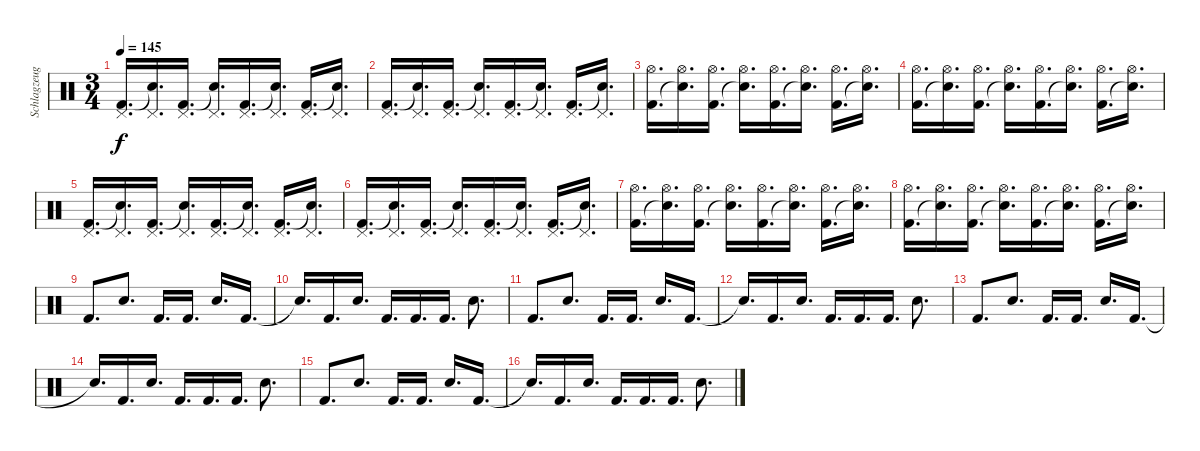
\track ("Schlagzeug" "Schlagzeug") {instrument percussion}
\staff {score}
\articulation defaults
\ts (3 4)
\tempo 145
\clef neutral
\ks c
("Kick (hit) 2" "Pedal Hi-Hat (hit)").16{d dy f} ("Snare (hit)"{t} "Pedal Hi-Hat (hit)").16{d} ("Kick (hit) 2" "Pedal Hi-Hat (hit)").16{d} ("Snare (hit)"{t} "Pedal Hi-Hat (hit)").16{d} ("Kick (hit) 2" "Pedal Hi-Hat (hit)").16{d} ("Snare (hit)"{t} "Pedal Hi-Hat (hit)").16{d} ("Kick (hit) 2" "Pedal Hi-Hat (hit)").16{d} ("Snare (hit)"{t} "Pedal Hi-Hat (hit)").16{d} |
("Kick (hit) 2" "Pedal Hi-Hat (hit)").16{d} ("Snare (hit)"{t} "Pedal Hi-Hat (hit)").16{d} ("Kick (hit) 2" "Pedal Hi-Hat (hit)").16{d} ("Snare (hit)"{t} "Pedal Hi-Hat (hit)").16{d} ("Kick (hit) 2" "Pedal Hi-Hat (hit)").16{d} ("Snare (hit)"{t} "Pedal Hi-Hat (hit)").16{d} ("Kick (hit) 2" "Pedal Hi-Hat (hit)").16{d} ("Snare (hit)"{t} "Pedal Hi-Hat (hit)").16{d} |
("Kick (hit) 2" "Hi-Hat (open)").16{d} ("Snare (hit)"{t} "Hi-Hat (open)").16{d} ("Kick (hit) 2" "Hi-Hat (open)").16{d} ("Snare (hit)"{t} "Hi-Hat (open)").16{d} ("Kick (hit) 2" "Hi-Hat (open)").16{d} ("Snare (hit)"{t} "Hi-Hat (open)").16{d} ("Kick (hit) 2" "Hi-Hat (open)").16{d} ("Snare (hit)"{t} "Hi-Hat (open)").16{d} |
("Kick (hit) 2" "Hi-Hat (open)").16{d} ("Snare (hit)"{t} "Hi-Hat (open)").16{d} ("Kick (hit) 2" "Hi-Hat (open)").16{d} ("Snare (hit)"{t} "Hi-Hat (open)").16{d} ("Kick (hit) 2" "Hi-Hat (open)").16{d} ("Snare (hit)"{t} "Hi-Hat (open)").16{d} ("Kick (hit) 2" "Hi-Hat (open)").16{d} ("Snare (hit)"{t} "Hi-Hat (open)").16{d} |
("Kick (hit) 2" "Pedal Hi-Hat (hit)").16{d} ("Snare (hit)"{t} "Pedal Hi-Hat (hit)").16{d} ("Kick (hit) 2" "Pedal Hi-Hat (hit)").16{d} ("Snare (hit)"{t} "Pedal Hi-Hat (hit)").16{d} ("Kick (hit) 2" "Pedal Hi-Hat (hit)").16{d} ("Snare (hit)"{t} "Pedal Hi-Hat (hit)").16{d} ("Kick (hit) 2" "Pedal Hi-Hat (hit)").16{d} ("Snare (hit)"{t} "Pedal Hi-Hat (hit)").16{d} |
("Kick (hit) 2" "Pedal Hi-Hat (hit)").16{d} ("Snare (hit)"{t} "Pedal Hi-Hat (hit)").16{d} ("Kick (hit) 2" "Pedal Hi-Hat (hit)").16{d} ("Snare (hit)"{t} "Pedal Hi-Hat (hit)").16{d} ("Kick (hit) 2" "Pedal Hi-Hat (hit)").16{d} ("Snare (hit)"{t} "Pedal Hi-Hat (hit)").16{d} ("Kick (hit) 2" "Pedal Hi-Hat (hit)").16{d} ("Snare (hit)"{t} "Pedal Hi-Hat (hit)").16{d} |
("Kick (hit) 2" "Hi-Hat (open)").16{d} ("Snare (hit)"{t} "Hi-Hat (open)").16{d} ("Kick (hit) 2" "Hi-Hat (open)").16{d} ("Snare (hit)"{t} "Hi-Hat (open)").16{d} ("Kick (hit) 2" "Hi-Hat (open)").16{d} ("Snare (hit)"{t} "Hi-Hat (open)").16{d} ("Kick (hit) 2" "Hi-Hat (open)").16{d} ("Snare (hit)"{t} "Hi-Hat (open)").16{d} |
("Kick (hit) 2" "Hi-Hat (open)").16{d} ("Snare (hit)"{t} "Hi-Hat (open)").16{d} ("Kick (hit) 2" "Hi-Hat (open)").16{d} ("Snare (hit)"{t} "Hi-Hat (open)").16{d} ("Kick (hit) 2" "Hi-Hat (open)").16{d} ("Snare (hit)"{t} "Hi-Hat (open)").16{d} ("Kick (hit) 2" "Hi-Hat (open)").16{d} ("Snare (hit)"{t} "Hi-Hat (open)").16{d} |
"Kick (hit) 2".8{d} "Snare (hit) 2".8{d} "Kick (hit) 2".16{d} "Kick (hit) 2".16{d} "Snare (hit) 2".16{d} "Kick (hit) 2".16{d} |
"Snare (hit)"{t}.16{d} "Kick (hit) 2".16{d} "Snare (hit) 2".16{d} "Kick (hit) 2".16{d} "Kick (hit) 2".16{d} "Kick (hit) 2".16{d} "Snare (hit) 2".8{d} |
"Kick (hit) 2".8{d} "Snare (hit) 2".8{d} "Kick (hit) 2".16{d} "Kick (hit) 2".16{d} "Snare (hit) 2".16{d} "Kick (hit) 2".16{d} |
"Snare (hit)"{t}.16{d} "Kick (hit) 2".16{d} "Snare (hit) 2".16{d} "Kick (hit) 2".16{d} "Kick (hit) 2".16{d} "Kick (hit) 2".16{d} "Snare (hit) 2".8{d} |
"Kick (hit) 2".8{d} "Snare (hit) 2".8{d} "Kick (hit) 2".16{d} "Kick (hit) 2".16{d} "Snare (hit) 2".16{d} "Kick (hit) 2".16{d} |
"Snare (hit)"{t}.16{d} "Kick (hit) 2".16{d} "Snare (hit) 2".16{d} "Kick (hit) 2".16{d} "Kick (hit) 2".16{d} "Kick (hit) 2".16{d} "Snare (hit) 2".8{d} |
"Kick (hit) 2".8{d} "Snare (hit) 2".8{d} "Kick (hit) 2".16{d} "Kick (hit) 2".16{d} "Snare (hit) 2".16{d} "Kick (hit) 2".16{d} |
"Snare (hit)"{t}.16{d} "Kick (hit) 2".16{d} "Snare (hit) 2".16{d} "Kick (hit) 2".16{d} "Kick (hit) 2".16{d} "Kick (hit) 2".16{d} "Snare (hit) 2".8{d}
